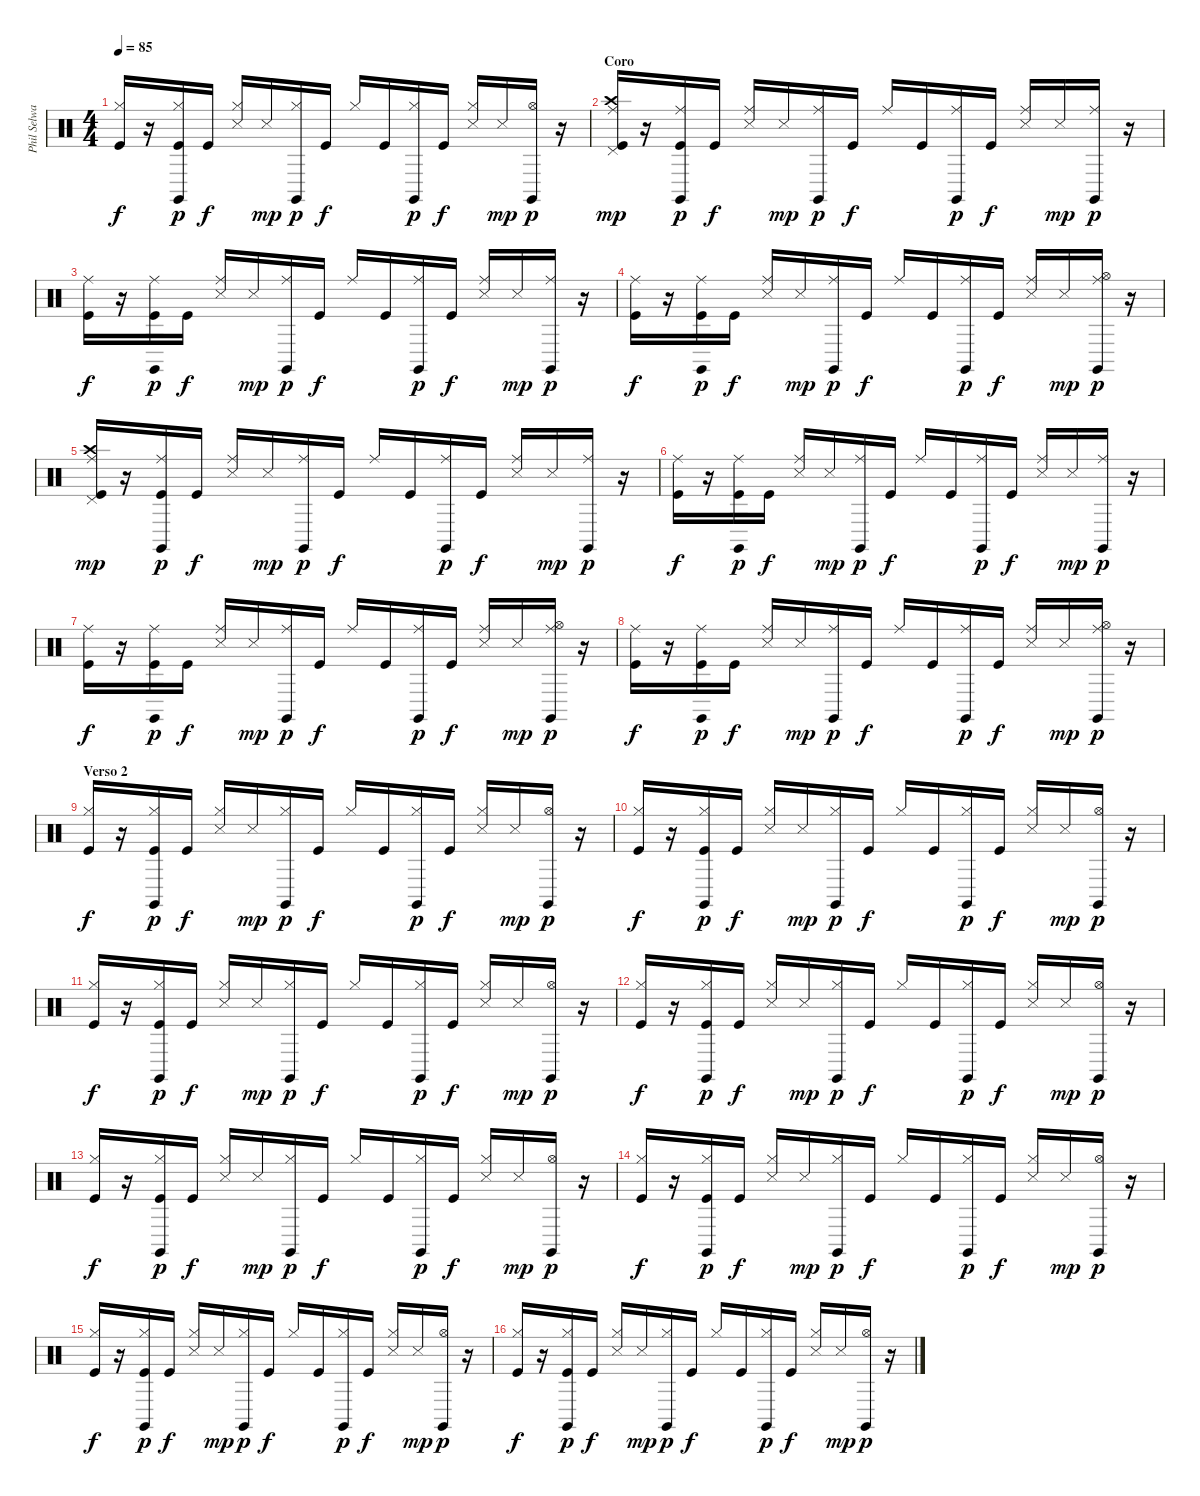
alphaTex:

\track ("Phil Selway" "Phil Selwa") {instrument percussion}
\staff {score}
\articulation defaults
\ts (4 4)
\tempo 85
\clef neutral
\ks c
("Hi-Hat (closed)" "Kick (hit)").16{dy f} r.16 ("Hi-Hat (closed)" "Claves (hit)" "Kick (hit)").16{dy p} "Kick (hit)".16{dy f} ("Hi-Hat (closed)" "Snare (side stick) 3").16 "Snare (side stick) 3".16{dy mp} ("Hi-Hat (closed)" "Claves (hit)").16{dy p} "Kick (hit)".16{dy f} "Hi-Hat (closed)".16 "Kick (hit)".16 ("Hi-Hat (closed)" "Claves (hit)").16{dy p} "Kick (hit)".16{dy f} ("Hi-Hat (closed)" "Snare (side stick) 3").16 "Snare (side stick) 3".16{dy mp} ("Hi-Hat (open)" "Claves (hit)").16{dy p} r.16 |
\section ("" "Coro")
("Ride (middle)" "Crash high (hit)" "Pedal Hi-Hat (hit)" "Kick (hit)").16{dy mp} r.16 ("Ride (middle)" "Claves (hit)" "Kick (hit)").16{dy p} "Kick (hit)".16{dy f} ("Ride (middle)" "Snare (side stick) 3").16 "Snare (side stick) 3".16{dy mp} ("Ride (middle)" "Claves (hit)").16{dy p} "Kick (hit)".16{dy f} "Ride (middle)".16 "Kick (hit)".16 ("Ride (middle)" "Claves (hit)").16{dy p} "Kick (hit)".16{dy f} ("Ride (middle)" "Snare (side stick) 3").16 "Snare (side stick) 3".16{dy mp} ("Ride (middle)" "Claves (hit)").16{dy p} r.16 |
("Ride (middle)" "Kick (hit)").16{dy f} r.16 ("Ride (middle)" "Claves (hit)" "Kick (hit)").16{dy p} "Kick (hit)".16{dy f} ("Ride (middle)" "Snare (side stick) 3").16 "Snare (side stick) 3".16{dy mp} ("Ride (middle)" "Claves (hit)").16{dy p} "Kick (hit)".16{dy f} "Ride (middle)".16 "Kick (hit)".16 ("Ride (middle)" "Claves (hit)").16{dy p} "Kick (hit)".16{dy f} ("Ride (middle)" "Snare (side stick) 3").16 "Snare (side stick) 3".16{dy mp} ("Ride (middle)" "Claves (hit)").16{dy p} r.16 |
("Ride (middle)" "Kick (hit)").16{dy f} r.16 ("Ride (middle)" "Claves (hit)" "Kick (hit)").16{dy p} "Kick (hit)".16{dy f} ("Ride (middle)" "Snare (side stick) 3").16 "Snare (side stick) 3".16{dy mp} ("Ride (middle)" "Claves (hit)").16{dy p} "Kick (hit)".16{dy f} "Ride (middle)".16 "Kick (hit)".16 ("Ride (middle)" "Claves (hit)").16{dy p} "Kick (hit)".16{dy f} ("Ride (middle)" "Snare (side stick) 3").16 "Snare (side stick) 3".16{dy mp} ("Ride (middle)" "Claves (hit)" "Hi-Hat (open)").16{dy p} r.16 |
("Ride (middle)" "Crash high (hit)" "Pedal Hi-Hat (hit)" "Kick (hit)").16{dy mp} r.16 ("Ride (middle)" "Claves (hit)" "Kick (hit)").16{dy p} "Kick (hit)".16{dy f} ("Ride (middle)" "Snare (side stick) 3").16 "Snare (side stick) 3".16{dy mp} ("Ride (middle)" "Claves (hit)").16{dy p} "Kick (hit)".16{dy f} "Ride (middle)".16 "Kick (hit)".16 ("Ride (middle)" "Claves (hit)").16{dy p} "Kick (hit)".16{dy f} ("Ride (middle)" "Snare (side stick) 3").16 "Snare (side stick) 3".16{dy mp} ("Ride (middle)" "Claves (hit)").16{dy p} r.16 |
("Ride (middle)" "Kick (hit)").16{dy f} r.16 ("Ride (middle)" "Claves (hit)" "Kick (hit)").16{dy p} "Kick (hit)".16{dy f} ("Ride (middle)" "Snare (side stick) 3").16 "Snare (side stick) 3".16{dy mp} ("Ride (middle)" "Claves (hit)").16{dy p} "Kick (hit)".16{dy f} "Ride (middle)".16 "Kick (hit)".16 ("Ride (middle)" "Claves (hit)").16{dy p} "Kick (hit)".16{dy f} ("Ride (middle)" "Snare (side stick) 3").16 "Snare (side stick) 3".16{dy mp} ("Ride (middle)" "Claves (hit)").16{dy p} r.16 |
("Ride (middle)" "Kick (hit)").16{dy f} r.16 ("Ride (middle)" "Claves (hit)" "Kick (hit)").16{dy p} "Kick (hit)".16{dy f} ("Ride (middle)" "Snare (side stick) 3").16 "Snare (side stick) 3".16{dy mp} ("Ride (middle)" "Claves (hit)").16{dy p} "Kick (hit)".16{dy f} "Ride (middle)".16 "Kick (hit)".16 ("Ride (middle)" "Claves (hit)").16{dy p} "Kick (hit)".16{dy f} ("Ride (middle)" "Snare (side stick) 3").16 "Snare (side stick) 3".16{dy mp} ("Ride (middle)" "Claves (hit)" "Hi-Hat (open)").16{dy p} r.16 |
("Ride (middle)" "Kick (hit)").16{dy f} r.16 ("Ride (middle)" "Claves (hit)" "Kick (hit)").16{dy p} "Kick (hit)".16{dy f} ("Ride (middle)" "Snare (side stick) 3").16 "Snare (side stick) 3".16{dy mp} ("Ride (middle)" "Claves (hit)").16{dy p} "Kick (hit)".16{dy f} "Ride (middle)".16 "Kick (hit)".16 ("Ride (middle)" "Claves (hit)").16{dy p} "Kick (hit)".16{dy f} ("Ride (middle)" "Snare (side stick) 3").16 "Snare (side stick) 3".16{dy mp} ("Ride (middle)" "Claves (hit)" "Hi-Hat (open)").16{dy p} r.16 |
\section ("" "Verso 2")
("Hi-Hat (closed)" "Kick (hit)").16{dy f} r.16 ("Hi-Hat (closed)" "Claves (hit)" "Kick (hit)").16{dy p} "Kick (hit)".16{dy f} ("Hi-Hat (closed)" "Snare (side stick) 3").16 "Snare (side stick) 3".16{dy mp} ("Hi-Hat (closed)" "Claves (hit)").16{dy p} "Kick (hit)".16{dy f} "Hi-Hat (closed)".16 "Kick (hit)".16 ("Hi-Hat (closed)" "Claves (hit)").16{dy p} "Kick (hit)".16{dy f} ("Hi-Hat (closed)" "Snare (side stick) 3").16 "Snare (side stick) 3".16{dy mp} ("Hi-Hat (open)" "Claves (hit)").16{dy p} r.16 |
("Hi-Hat (closed)" "Kick (hit)").16{dy f} r.16 ("Hi-Hat (closed)" "Claves (hit)" "Kick (hit)").16{dy p} "Kick (hit)".16{dy f} ("Hi-Hat (closed)" "Snare (side stick) 3").16 "Snare (side stick) 3".16{dy mp} ("Hi-Hat (closed)" "Claves (hit)").16{dy p} "Kick (hit)".16{dy f} "Hi-Hat (closed)".16 "Kick (hit)".16 ("Hi-Hat (closed)" "Claves (hit)").16{dy p} "Kick (hit)".16{dy f} ("Hi-Hat (closed)" "Snare (side stick) 3").16 "Snare (side stick) 3".16{dy mp} ("Hi-Hat (open)" "Claves (hit)").16{dy p} r.16 |
("Hi-Hat (closed)" "Kick (hit)").16{dy f} r.16 ("Hi-Hat (closed)" "Claves (hit)" "Kick (hit)").16{dy p} "Kick (hit)".16{dy f} ("Hi-Hat (closed)" "Snare (side stick) 3").16 "Snare (side stick) 3".16{dy mp} ("Hi-Hat (closed)" "Claves (hit)").16{dy p} "Kick (hit)".16{dy f} "Hi-Hat (closed)".16 "Kick (hit)".16 ("Hi-Hat (closed)" "Claves (hit)").16{dy p} "Kick (hit)".16{dy f} ("Hi-Hat (closed)" "Snare (side stick) 3").16 "Snare (side stick) 3".16{dy mp} ("Hi-Hat (open)" "Claves (hit)").16{dy p} r.16 |
("Hi-Hat (closed)" "Kick (hit)").16{dy f} r.16 ("Hi-Hat (closed)" "Claves (hit)" "Kick (hit)").16{dy p} "Kick (hit)".16{dy f} ("Hi-Hat (closed)" "Snare (side stick) 3").16 "Snare (side stick) 3".16{dy mp} ("Hi-Hat (closed)" "Claves (hit)").16{dy p} "Kick (hit)".16{dy f} "Hi-Hat (closed)".16 "Kick (hit)".16 ("Hi-Hat (closed)" "Claves (hit)").16{dy p} "Kick (hit)".16{dy f} ("Hi-Hat (closed)" "Snare (side stick) 3").16 "Snare (side stick) 3".16{dy mp} ("Hi-Hat (open)" "Claves (hit)").16{dy p} r.16 |
("Hi-Hat (closed)" "Kick (hit)").16{dy f} r.16 ("Hi-Hat (closed)" "Claves (hit)" "Kick (hit)").16{dy p} "Kick (hit)".16{dy f} ("Hi-Hat (closed)" "Snare (side stick) 3").16 "Snare (side stick) 3".16{dy mp} ("Hi-Hat (closed)" "Claves (hit)").16{dy p} "Kick (hit)".16{dy f} "Hi-Hat (closed)".16 "Kick (hit)".16 ("Hi-Hat (closed)" "Claves (hit)").16{dy p} "Kick (hit)".16{dy f} ("Hi-Hat (closed)" "Snare (side stick) 3").16 "Snare (side stick) 3".16{dy mp} ("Hi-Hat (open)" "Claves (hit)").16{dy p} r.16 |
("Hi-Hat (closed)" "Kick (hit)").16{dy f} r.16 ("Hi-Hat (closed)" "Claves (hit)" "Kick (hit)").16{dy p} "Kick (hit)".16{dy f} ("Hi-Hat (closed)" "Snare (side stick) 3").16 "Snare (side stick) 3".16{dy mp} ("Hi-Hat (closed)" "Claves (hit)").16{dy p} "Kick (hit)".16{dy f} "Hi-Hat (closed)".16 "Kick (hit)".16 ("Hi-Hat (closed)" "Claves (hit)").16{dy p} "Kick (hit)".16{dy f} ("Hi-Hat (closed)" "Snare (side stick) 3").16 "Snare (side stick) 3".16{dy mp} ("Hi-Hat (open)" "Claves (hit)").16{dy p} r.16 |
("Hi-Hat (closed)" "Kick (hit)").16{dy f} r.16 ("Hi-Hat (closed)" "Claves (hit)" "Kick (hit)").16{dy p} "Kick (hit)".16{dy f} ("Hi-Hat (closed)" "Snare (side stick) 3").16 "Snare (side stick) 3".16{dy mp} ("Hi-Hat (closed)" "Claves (hit)").16{dy p} "Kick (hit)".16{dy f} "Hi-Hat (closed)".16 "Kick (hit)".16 ("Hi-Hat (closed)" "Claves (hit)").16{dy p} "Kick (hit)".16{dy f} ("Hi-Hat (closed)" "Snare (side stick) 3").16 "Snare (side stick) 3".16{dy mp} ("Hi-Hat (open)" "Claves (hit)").16{dy p} r.16 |
("Hi-Hat (closed)" "Kick (hit)").16{dy f} r.16 ("Hi-Hat (closed)" "Claves (hit)" "Kick (hit)").16{dy p} "Kick (hit)".16{dy f} ("Hi-Hat (closed)" "Snare (side stick) 3").16 "Snare (side stick) 3".16{dy mp} ("Hi-Hat (closed)" "Claves (hit)").16{dy p} "Kick (hit)".16{dy f} "Hi-Hat (closed)".16 "Kick (hit)".16 ("Hi-Hat (closed)" "Claves (hit)").16{dy p} "Kick (hit)".16{dy f} ("Hi-Hat (closed)" "Snare (side stick) 3").16 "Snare (side stick) 3".16{dy mp} ("Hi-Hat (open)" "Claves (hit)").16{dy p} r.16
